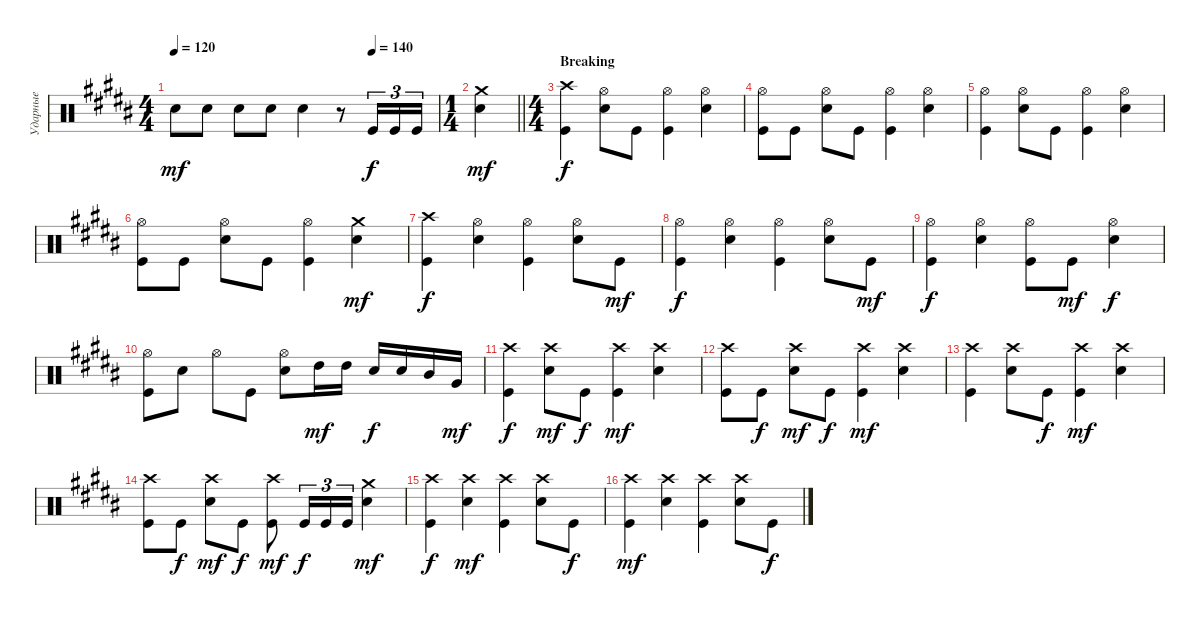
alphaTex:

\track ("Ударные" "Ударные") {instrument percussion}
\staff {score}
\articulation defaults
\ts (4 4)
\tempo 120
\tempo (140 0.75)
\clef neutral
\ks g#minor "Snare (hit) 2".8{dy mf} "Snare (hit) 2".8 "Snare (hit) 2".8 "Snare (hit) 2".8 "Snare (hit) 2".4
r.8 "Kick (hit)".16{tu (3 2) dy f} "Kick (hit)".16{tu (3 2)} "Kick (hit)".16{tu (3 2)} |
\ts (1 4)
\barLineRight lightlight
("Snare (hit) 2" "Crash medium (hit)").4{dy mf} |
\ts (4 4)
\section ("" "Breaking")
("Kick (hit)" "Crash high (hit)").4{dy f} ("Hi-Hat (open)" "Snare (hit) 2").8 "Kick (hit)".8 ("Kick (hit)" "Hi-Hat (open)").4 ("Hi-Hat (open)" "Snare (hit) 2").4 |
("Kick (hit)" "Hi-Hat (open)").8 "Kick (hit)".8 ("Hi-Hat (open)" "Snare (hit) 2").8 "Kick (hit)".8 ("Hi-Hat (open)" "Kick (hit)").4 ("Hi-Hat (open)" "Snare (hit) 2").4 |
("Kick (hit)" "Hi-Hat (open)").4 ("Hi-Hat (open)" "Snare (hit) 2").8 "Kick (hit)".8 ("Hi-Hat (open)" "Kick (hit)").4 ("Hi-Hat (open)" "Snare (hit) 2").4 |
("Kick (hit)" "Hi-Hat (open)").8 "Kick (hit)".8 ("Hi-Hat (open)" "Snare (hit) 2").8 "Kick (hit)".8 ("Hi-Hat (open)" "Kick (hit)").4 ("Crash medium (hit)" "Snare (hit) 2").4{dy mf} |
("Kick (hit)" "Crash high (hit)").4{dy f} ("Hi-Hat (open)" "Snare (hit) 2").4 ("Hi-Hat (open)" "Kick (hit)").4 ("Hi-Hat (open)" "Snare (hit) 2").8 "Kick (hit)".8{dy mf} |
("Kick (hit)" "Hi-Hat (open)").4{dy f} ("Hi-Hat (open)" "Snare (hit) 2").4 ("Hi-Hat (open)" "Kick (hit)").4 ("Hi-Hat (open)" "Snare (hit) 2").8 "Kick (hit)".8{dy mf} |
("Kick (hit)" "Hi-Hat (open)").4{dy f} ("Hi-Hat (open)" "Snare (hit) 2").4 ("Hi-Hat (open)" "Kick (hit)").8 "Kick (hit)".8{dy mf} ("Hi-Hat (open)" "Snare (hit) 2").4{dy f} |
("Kick (hit)" "Hi-Hat (open)").8 "Snare (hit) 2".8 "Hi-Hat (open)".8 "Kick (hit)".8 ("Snare (hit) 2" "Hi-Hat (open)").8 "High Tom (hit)".16{dy mf} "High Tom (hit)".16 "Snare (hit) 2".16{dy f} "Snare (hit) 2".16 "Mid Tom (hit)".16 "Very Low Tom (hit)".16{dy mf} |
("Kick (hit)" "Crash high (hit)").4{dy f} ("Snare (hit) 2" "Crash high (hit)").8{dy mf} "Kick (hit)".8{dy f} ("Kick (hit)" "Crash high (hit)").4{dy mf} ("Snare (hit) 2" "Crash high (hit)").4 |
("Kick (hit)" "Crash high (hit)").8 "Kick (hit)".8{dy f} ("Snare (hit) 2" "Crash high (hit)").8{dy mf} "Kick (hit)".8{dy f} ("Kick (hit)" "Crash high (hit)").4{dy mf} ("Snare (hit) 2" "Crash high (hit)").4 |
("Kick (hit)" "Crash high (hit)").4 ("Snare (hit) 2" "Crash high (hit)").8 "Kick (hit)".8{dy f} ("Kick (hit)" "Crash high (hit)").4{dy mf} ("Snare (hit) 2" "Crash high (hit)").4 |
("Kick (hit)" "Crash high (hit)").8 "Kick (hit)".8{dy f} ("Snare (hit) 2" "Crash high (hit)").8{dy mf} "Kick (hit)".8{dy f} ("Kick (hit)" "Crash high (hit)").8{dy mf} "Kick (hit)".16{tu (3 2) dy f} "Kick (hit)".16{tu (3 2)} "Kick (hit)".16{tu (3 2)} ("Snare (hit) 2" "Crash medium (hit)").4{dy mf} |
("Kick (hit)" "Crash high (hit)").4{dy f} ("Snare (hit) 2" "Crash high (hit)").4{dy mf} ("Kick (hit)" "Crash high (hit)").4 ("Snare (hit) 2" "Crash high (hit)").8 "Kick (hit)".8{dy f} |
("Kick (hit)" "Crash high (hit)").4{dy mf} ("Snare (hit) 2" "Crash high (hit)").4 ("Kick (hit)" "Crash high (hit)").4 ("Snare (hit) 2" "Crash high (hit)").8 "Kick (hit)".8{dy f}
